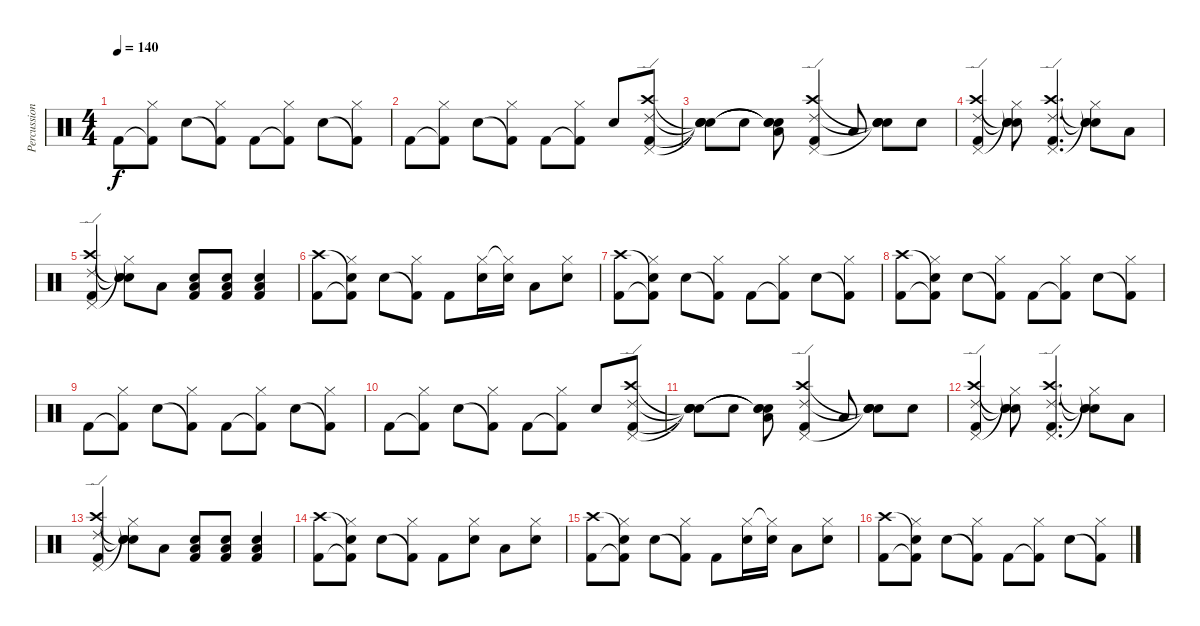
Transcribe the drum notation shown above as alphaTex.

\track ("Percussion" "Percussion") {instrument percussion}
\staff {score}
\articulation defaults
\ts (4 4)
\tempo 140
\clef neutral
\ks c "Kick (hit) 2".8{dy f}
("Kick (hit) 2"{t} "Hi-Hat (closed)").8 "Snare (hit) 2".8 ("Kick (hit) 2"{t} "Hi-Hat (closed)").8 "Kick (hit) 2".8 ("Kick (hit) 2"{t} "Hi-Hat (closed)").8 "Snare (hit) 2".8 ("Kick (hit) 2"{t} "Hi-Hat (closed)").8 |
"Kick (hit) 2".8 ("Kick (hit) 2"{t} "Hi-Hat (closed)").8 "Snare (hit) 2".8 ("Kick (hit) 2"{t} "Hi-Hat (closed)").8 "Kick (hit) 2".8 ("Kick (hit) 2"{t} "Hi-Hat (closed)").8 "Snare (hit) 2".8 ("Kick (hit) 2" "Crash high (hit)" "Ride (edge) 2" "Pedal Hi-Hat (hit)").8 |
("Snare (hit) 2"{t} "Snare (hit)"{t} "Snare (hit)"{t} "Snare (hit)"{t}).8 "Snare (hit) 2".8 ("Low Tom (hit)" "Snare (hit)"{t} "Snare (hit)"{t} "Snare (hit)"{t}).8 ("Kick (hit) 2" "Crash high (hit)" "Ride (edge) 2" "Pedal Hi-Hat (hit)").4 "Low Tom (hit)".8 ("Snare (hit) 2" "Snare (hit)"{t} "Snare (hit)"{t} "Snare (hit)"{t}).8 "Snare (hit) 2".8 |
("Kick (hit) 2" "Crash high (hit)" "Ride (edge) 2" "Pedal Hi-Hat (hit)").4 ("Snare (hit) 2" "Snare (hit)"{t} "Snare (hit)"{t} "Hi-Hat (closed)"{t}).8 ("Kick (hit) 2" "Crash high (hit)" "Ride (edge) 2" "Pedal Hi-Hat (hit)").4{d} ("Snare (hit) 2" "Snare (hit)"{t} "Snare (hit)"{t} "Hi-Hat (closed)"{t}).8 "Low Tom (hit)".8 |
("Kick (hit) 2" "Crash high (hit)" "Ride (edge) 2" "Pedal Hi-Hat (hit)").4 ("Snare (hit) 2" "Snare (hit)"{t} "Snare (hit)"{t} "Hi-Hat (closed)"{t}).8 "Low Tom (hit)".8 ("Low Tom (hit)" "Snare (hit) 2" "Kick (hit) 2").8 ("Low Tom (hit)" "Snare (hit) 2" "Kick (hit) 2").8 ("Low Tom (hit)" "Snare (hit) 2" "Kick (hit) 2").4 |
("Kick (hit) 2" "Crash high (hit)").8 ("Kick (hit) 2"{t} "Snare (hit)"{t} "Hi-Hat (closed)").8 "Snare (hit) 2".8 ("Kick (hit) 2"{t} "Hi-Hat (closed)").8 "Kick (hit) 2".8 ("Snare (hit) 2" "Hi-Hat (closed)").16 ("Snare (hit) 2" "Hi-Hat (closed)"{t}).16 "Low Tom (hit)".8 ("Snare (hit) 2" "Hi-Hat (closed)").8 |
("Kick (hit) 2" "Crash high (hit)").8 ("Kick (hit) 2"{t} "Snare (hit)"{t} "Hi-Hat (closed)").8 "Snare (hit) 2".8 ("Kick (hit) 2"{t} "Hi-Hat (closed)").8 "Kick (hit) 2".8 ("Kick (hit) 2"{t} "Hi-Hat (closed)").8 "Snare (hit) 2".8 ("Kick (hit) 2"{t} "Hi-Hat (closed)").8 |
("Kick (hit) 2" "Crash high (hit)").8 ("Kick (hit) 2"{t} "Snare (hit)"{t} "Hi-Hat (closed)").8 "Snare (hit) 2".8 ("Kick (hit) 2"{t} "Hi-Hat (closed)").8 "Kick (hit) 2".8 ("Kick (hit) 2"{t} "Hi-Hat (closed)").8 "Snare (hit) 2".8 ("Kick (hit) 2"{t} "Hi-Hat (closed)").8 |
"Kick (hit) 2".8 ("Kick (hit) 2"{t} "Hi-Hat (closed)").8 "Snare (hit) 2".8 ("Kick (hit) 2"{t} "Hi-Hat (closed)").8 "Kick (hit) 2".8 ("Kick (hit) 2"{t} "Hi-Hat (closed)").8 "Snare (hit) 2".8 ("Kick (hit) 2"{t} "Hi-Hat (closed)").8 |
"Kick (hit) 2".8 ("Kick (hit) 2"{t} "Hi-Hat (closed)").8 "Snare (hit) 2".8 ("Kick (hit) 2"{t} "Hi-Hat (closed)").8 "Kick (hit) 2".8 ("Kick (hit) 2"{t} "Hi-Hat (closed)").8 "Snare (hit) 2".8 ("Kick (hit) 2" "Crash high (hit)" "Ride (edge) 2" "Pedal Hi-Hat (hit)").8 |
("Snare (hit) 2"{t} "Snare (hit)"{t} "Snare (hit)"{t} "Snare (hit)"{t}).8 "Snare (hit) 2".8 ("Low Tom (hit)" "Snare (hit)"{t} "Snare (hit)"{t} "Snare (hit)"{t}).8 ("Kick (hit) 2" "Crash high (hit)" "Ride (edge) 2" "Pedal Hi-Hat (hit)").4 "Low Tom (hit)".8 ("Snare (hit) 2" "Snare (hit)"{t} "Snare (hit)"{t} "Snare (hit)"{t}).8 "Snare (hit) 2".8 |
("Kick (hit) 2" "Crash high (hit)" "Ride (edge) 2" "Pedal Hi-Hat (hit)").4 ("Snare (hit) 2" "Snare (hit)"{t} "Snare (hit)"{t} "Hi-Hat (closed)"{t}).8 ("Kick (hit) 2" "Crash high (hit)" "Ride (edge) 2" "Pedal Hi-Hat (hit)").4{d} ("Snare (hit) 2" "Snare (hit)"{t} "Snare (hit)"{t} "Hi-Hat (closed)"{t}).8 "Low Tom (hit)".8 |
("Kick (hit) 2" "Crash high (hit)" "Ride (edge) 2" "Pedal Hi-Hat (hit)").4 ("Snare (hit) 2" "Snare (hit)"{t} "Snare (hit)"{t} "Hi-Hat (closed)"{t}).8 "Low Tom (hit)".8 ("Low Tom (hit)" "Snare (hit) 2" "Kick (hit) 2").8 ("Low Tom (hit)" "Snare (hit) 2" "Kick (hit) 2").8 ("Low Tom (hit)" "Snare (hit) 2" "Kick (hit) 2").4 |
("Kick (hit) 2" "Crash high (hit)").8 ("Kick (hit) 2"{t} "Snare (hit)"{t} "Hi-Hat (closed)").8 "Snare (hit) 2".8 ("Kick (hit) 2"{t} "Hi-Hat (closed)").8 "Kick (hit) 2".8 ("Snare (hit) 2" "Hi-Hat (closed)").8 "Low Tom (hit)".8 ("Snare (hit) 2" "Hi-Hat (closed)").8 |
("Kick (hit) 2" "Crash high (hit)").8 ("Kick (hit) 2"{t} "Snare (hit)"{t} "Hi-Hat (closed)").8 "Snare (hit) 2".8 ("Kick (hit) 2"{t} "Hi-Hat (closed)").8 "Kick (hit) 2".8 ("Snare (hit) 2" "Hi-Hat (closed)").16 ("Snare (hit) 2" "Hi-Hat (closed)"{t}).16 "Low Tom (hit)".8 ("Snare (hit) 2" "Hi-Hat (closed)").8 |
("Kick (hit) 2" "Crash high (hit)").8 ("Kick (hit) 2"{t} "Snare (hit)"{t} "Hi-Hat (closed)").8 "Snare (hit) 2".8 ("Kick (hit) 2"{t} "Hi-Hat (closed)").8 "Kick (hit) 2".8 ("Kick (hit) 2"{t} "Hi-Hat (closed)").8 "Snare (hit) 2".8 ("Kick (hit) 2"{t} "Hi-Hat (closed)").8
